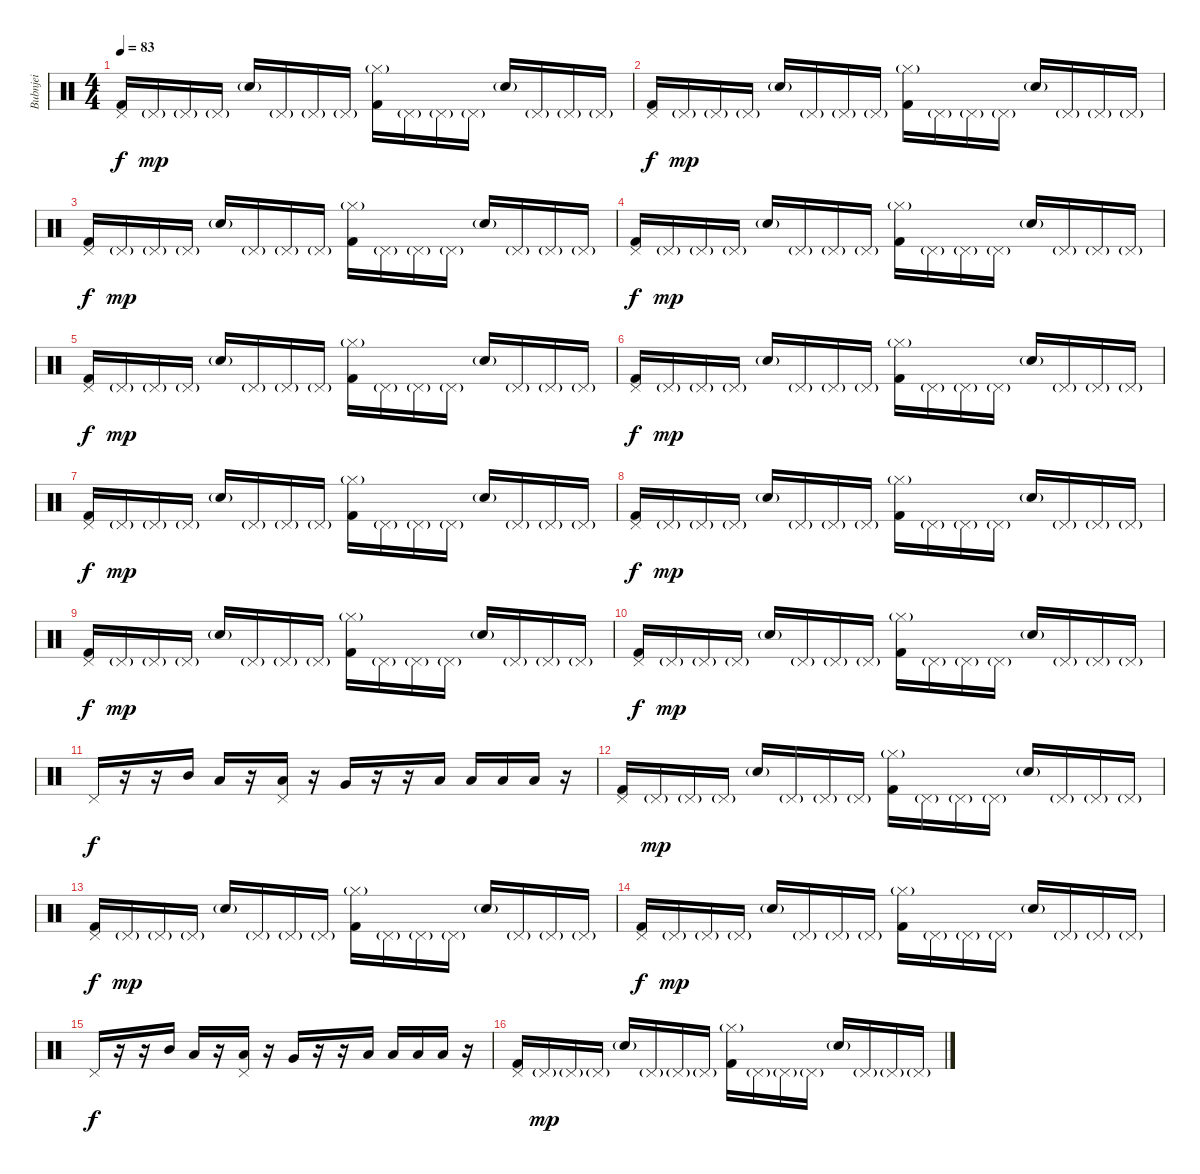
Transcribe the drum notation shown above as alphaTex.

\track ("Bubnjei" "Bubnjei") {instrument percussion}
\staff {score}
\articulation defaults
\ts (4 4)
\tempo 83
\clef neutral
\ks c
("Pedal Hi-Hat (hit)" "Kick (hit) 2").16{dy f} "Pedal Hi-Hat (hit)"{g}.16{dy mp} "Pedal Hi-Hat (hit)"{g}.16 "Pedal Hi-Hat (hit)"{g}.16 "Snare (hit) 2"{g}.16 "Pedal Hi-Hat (hit)"{g}.16 "Pedal Hi-Hat (hit)"{g}.16 "Pedal Hi-Hat (hit)"{g}.16 ("Hi-Hat (closed)"{g} "Kick (hit) 2").16 "Pedal Hi-Hat (hit)"{g}.16 "Pedal Hi-Hat (hit)"{g}.16 "Pedal Hi-Hat (hit)"{g}.16 "Snare (hit) 2"{g}.16 "Pedal Hi-Hat (hit)"{g}.16 "Pedal Hi-Hat (hit)"{g}.16 "Pedal Hi-Hat (hit)"{g}.16 |
("Pedal Hi-Hat (hit)" "Kick (hit) 2").16{dy f} "Pedal Hi-Hat (hit)"{g}.16{dy mp} "Pedal Hi-Hat (hit)"{g}.16 "Pedal Hi-Hat (hit)"{g}.16 "Snare (hit) 2"{g}.16 "Pedal Hi-Hat (hit)"{g}.16 "Pedal Hi-Hat (hit)"{g}.16 "Pedal Hi-Hat (hit)"{g}.16 ("Hi-Hat (closed)"{g} "Kick (hit) 2").16 "Pedal Hi-Hat (hit)"{g}.16 "Pedal Hi-Hat (hit)"{g}.16 "Pedal Hi-Hat (hit)"{g}.16 "Snare (hit) 2"{g}.16 "Pedal Hi-Hat (hit)"{g}.16 "Pedal Hi-Hat (hit)"{g}.16 "Pedal Hi-Hat (hit)"{g}.16 |
("Pedal Hi-Hat (hit)" "Kick (hit) 2").16{dy f} "Pedal Hi-Hat (hit)"{g}.16{dy mp} "Pedal Hi-Hat (hit)"{g}.16 "Pedal Hi-Hat (hit)"{g}.16 "Snare (hit) 2"{g}.16 "Pedal Hi-Hat (hit)"{g}.16 "Pedal Hi-Hat (hit)"{g}.16 "Pedal Hi-Hat (hit)"{g}.16 ("Hi-Hat (closed)"{g} "Kick (hit) 2").16 "Pedal Hi-Hat (hit)"{g}.16 "Pedal Hi-Hat (hit)"{g}.16 "Pedal Hi-Hat (hit)"{g}.16 "Snare (hit) 2"{g}.16 "Pedal Hi-Hat (hit)"{g}.16 "Pedal Hi-Hat (hit)"{g}.16 "Pedal Hi-Hat (hit)"{g}.16 |
("Pedal Hi-Hat (hit)" "Kick (hit) 2").16{dy f} "Pedal Hi-Hat (hit)"{g}.16{dy mp} "Pedal Hi-Hat (hit)"{g}.16 "Pedal Hi-Hat (hit)"{g}.16 "Snare (hit) 2"{g}.16 "Pedal Hi-Hat (hit)"{g}.16 "Pedal Hi-Hat (hit)"{g}.16 "Pedal Hi-Hat (hit)"{g}.16 ("Hi-Hat (closed)"{g} "Kick (hit) 2").16 "Pedal Hi-Hat (hit)"{g}.16 "Pedal Hi-Hat (hit)"{g}.16 "Pedal Hi-Hat (hit)"{g}.16 "Snare (hit) 2"{g}.16 "Pedal Hi-Hat (hit)"{g}.16 "Pedal Hi-Hat (hit)"{g}.16 "Pedal Hi-Hat (hit)"{g}.16 |
("Pedal Hi-Hat (hit)" "Kick (hit) 2").16{dy f} "Pedal Hi-Hat (hit)"{g}.16{dy mp} "Pedal Hi-Hat (hit)"{g}.16 "Pedal Hi-Hat (hit)"{g}.16 "Snare (hit) 2"{g}.16 "Pedal Hi-Hat (hit)"{g}.16 "Pedal Hi-Hat (hit)"{g}.16 "Pedal Hi-Hat (hit)"{g}.16 ("Hi-Hat (closed)"{g} "Kick (hit) 2").16 "Pedal Hi-Hat (hit)"{g}.16 "Pedal Hi-Hat (hit)"{g}.16 "Pedal Hi-Hat (hit)"{g}.16 "Snare (hit) 2"{g}.16 "Pedal Hi-Hat (hit)"{g}.16 "Pedal Hi-Hat (hit)"{g}.16 "Pedal Hi-Hat (hit)"{g}.16 |
("Pedal Hi-Hat (hit)" "Kick (hit) 2").16{dy f} "Pedal Hi-Hat (hit)"{g}.16{dy mp} "Pedal Hi-Hat (hit)"{g}.16 "Pedal Hi-Hat (hit)"{g}.16 "Snare (hit) 2"{g}.16 "Pedal Hi-Hat (hit)"{g}.16 "Pedal Hi-Hat (hit)"{g}.16 "Pedal Hi-Hat (hit)"{g}.16 ("Hi-Hat (closed)"{g} "Kick (hit) 2").16 "Pedal Hi-Hat (hit)"{g}.16 "Pedal Hi-Hat (hit)"{g}.16 "Pedal Hi-Hat (hit)"{g}.16 "Snare (hit) 2"{g}.16 "Pedal Hi-Hat (hit)"{g}.16 "Pedal Hi-Hat (hit)"{g}.16 "Pedal Hi-Hat (hit)"{g}.16 |
("Pedal Hi-Hat (hit)" "Kick (hit) 2").16{dy f} "Pedal Hi-Hat (hit)"{g}.16{dy mp} "Pedal Hi-Hat (hit)"{g}.16 "Pedal Hi-Hat (hit)"{g}.16 "Snare (hit) 2"{g}.16 "Pedal Hi-Hat (hit)"{g}.16 "Pedal Hi-Hat (hit)"{g}.16 "Pedal Hi-Hat (hit)"{g}.16 ("Hi-Hat (closed)"{g} "Kick (hit) 2").16 "Pedal Hi-Hat (hit)"{g}.16 "Pedal Hi-Hat (hit)"{g}.16 "Pedal Hi-Hat (hit)"{g}.16 "Snare (hit) 2"{g}.16 "Pedal Hi-Hat (hit)"{g}.16 "Pedal Hi-Hat (hit)"{g}.16 "Pedal Hi-Hat (hit)"{g}.16 |
("Pedal Hi-Hat (hit)" "Kick (hit) 2").16{dy f} "Pedal Hi-Hat (hit)"{g}.16{dy mp} "Pedal Hi-Hat (hit)"{g}.16 "Pedal Hi-Hat (hit)"{g}.16 "Snare (hit) 2"{g}.16 "Pedal Hi-Hat (hit)"{g}.16 "Pedal Hi-Hat (hit)"{g}.16 "Pedal Hi-Hat (hit)"{g}.16 ("Hi-Hat (closed)"{g} "Kick (hit) 2").16 "Pedal Hi-Hat (hit)"{g}.16 "Pedal Hi-Hat (hit)"{g}.16 "Pedal Hi-Hat (hit)"{g}.16 "Snare (hit) 2"{g}.16 "Pedal Hi-Hat (hit)"{g}.16 "Pedal Hi-Hat (hit)"{g}.16 "Pedal Hi-Hat (hit)"{g}.16 |
("Pedal Hi-Hat (hit)" "Kick (hit) 2").16{dy f} "Pedal Hi-Hat (hit)"{g}.16{dy mp} "Pedal Hi-Hat (hit)"{g}.16 "Pedal Hi-Hat (hit)"{g}.16 "Snare (hit) 2"{g}.16 "Pedal Hi-Hat (hit)"{g}.16 "Pedal Hi-Hat (hit)"{g}.16 "Pedal Hi-Hat (hit)"{g}.16 ("Hi-Hat (closed)"{g} "Kick (hit) 2").16 "Pedal Hi-Hat (hit)"{g}.16 "Pedal Hi-Hat (hit)"{g}.16 "Pedal Hi-Hat (hit)"{g}.16 "Snare (hit) 2"{g}.16 "Pedal Hi-Hat (hit)"{g}.16 "Pedal Hi-Hat (hit)"{g}.16 "Pedal Hi-Hat (hit)"{g}.16 |
("Pedal Hi-Hat (hit)" "Kick (hit) 2").16{dy f} "Pedal Hi-Hat (hit)"{g}.16{dy mp} "Pedal Hi-Hat (hit)"{g}.16 "Pedal Hi-Hat (hit)"{g}.16 "Snare (hit) 2"{g}.16 "Pedal Hi-Hat (hit)"{g}.16 "Pedal Hi-Hat (hit)"{g}.16 "Pedal Hi-Hat (hit)"{g}.16 ("Hi-Hat (closed)"{g} "Kick (hit) 2").16 "Pedal Hi-Hat (hit)"{g}.16 "Pedal Hi-Hat (hit)"{g}.16 "Pedal Hi-Hat (hit)"{g}.16 "Snare (hit) 2"{g}.16 "Pedal Hi-Hat (hit)"{g}.16 "Pedal Hi-Hat (hit)"{g}.16 "Pedal Hi-Hat (hit)"{g}.16 |
"Pedal Hi-Hat (hit)".16{dy f} r.16 r.16 "Mid Tom (hit)".16 "Low Tom (hit)".16 r.16 ("Pedal Hi-Hat (hit)" "Low Tom (hit)").16 r.16 "Very Low Tom (hit)".16 r.16 r.16 "Low Floor Tom (hit)".16 "Low Floor Tom (hit)".16 "Low Floor Tom (hit)".16 "Low Floor Tom (hit)".16 r.16 |
("Pedal Hi-Hat (hit)" "Kick (hit) 2").16 "Pedal Hi-Hat (hit)"{g}.16{dy mp} "Pedal Hi-Hat (hit)"{g}.16 "Pedal Hi-Hat (hit)"{g}.16 "Snare (hit) 2"{g}.16 "Pedal Hi-Hat (hit)"{g}.16 "Pedal Hi-Hat (hit)"{g}.16 "Pedal Hi-Hat (hit)"{g}.16 ("Hi-Hat (closed)"{g} "Kick (hit) 2").16 "Pedal Hi-Hat (hit)"{g}.16 "Pedal Hi-Hat (hit)"{g}.16 "Pedal Hi-Hat (hit)"{g}.16 "Snare (hit) 2"{g}.16 "Pedal Hi-Hat (hit)"{g}.16 "Pedal Hi-Hat (hit)"{g}.16 "Pedal Hi-Hat (hit)"{g}.16 |
("Pedal Hi-Hat (hit)" "Kick (hit) 2").16{dy f} "Pedal Hi-Hat (hit)"{g}.16{dy mp} "Pedal Hi-Hat (hit)"{g}.16 "Pedal Hi-Hat (hit)"{g}.16 "Snare (hit) 2"{g}.16 "Pedal Hi-Hat (hit)"{g}.16 "Pedal Hi-Hat (hit)"{g}.16 "Pedal Hi-Hat (hit)"{g}.16 ("Hi-Hat (closed)"{g} "Kick (hit) 2").16 "Pedal Hi-Hat (hit)"{g}.16 "Pedal Hi-Hat (hit)"{g}.16 "Pedal Hi-Hat (hit)"{g}.16 "Snare (hit) 2"{g}.16 "Pedal Hi-Hat (hit)"{g}.16 "Pedal Hi-Hat (hit)"{g}.16 "Pedal Hi-Hat (hit)"{g}.16 |
("Pedal Hi-Hat (hit)" "Kick (hit) 2").16{dy f} "Pedal Hi-Hat (hit)"{g}.16{dy mp} "Pedal Hi-Hat (hit)"{g}.16 "Pedal Hi-Hat (hit)"{g}.16 "Snare (hit) 2"{g}.16 "Pedal Hi-Hat (hit)"{g}.16 "Pedal Hi-Hat (hit)"{g}.16 "Pedal Hi-Hat (hit)"{g}.16 ("Hi-Hat (closed)"{g} "Kick (hit) 2").16 "Pedal Hi-Hat (hit)"{g}.16 "Pedal Hi-Hat (hit)"{g}.16 "Pedal Hi-Hat (hit)"{g}.16 "Snare (hit) 2"{g}.16 "Pedal Hi-Hat (hit)"{g}.16 "Pedal Hi-Hat (hit)"{g}.16 "Pedal Hi-Hat (hit)"{g}.16 |
"Pedal Hi-Hat (hit)".16{dy f} r.16 r.16 "Mid Tom (hit)".16 "Low Tom (hit)".16 r.16 ("Pedal Hi-Hat (hit)" "Low Tom (hit)").16 r.16 "Very Low Tom (hit)".16 r.16 r.16 "Low Floor Tom (hit)".16 "Low Floor Tom (hit)".16 "Low Floor Tom (hit)".16 "Low Floor Tom (hit)".16 r.16 |
("Pedal Hi-Hat (hit)" "Kick (hit) 2").16 "Pedal Hi-Hat (hit)"{g}.16{dy mp} "Pedal Hi-Hat (hit)"{g}.16 "Pedal Hi-Hat (hit)"{g}.16 "Snare (hit) 2"{g}.16 "Pedal Hi-Hat (hit)"{g}.16 "Pedal Hi-Hat (hit)"{g}.16 "Pedal Hi-Hat (hit)"{g}.16 ("Hi-Hat (closed)"{g} "Kick (hit) 2").16 "Pedal Hi-Hat (hit)"{g}.16 "Pedal Hi-Hat (hit)"{g}.16 "Pedal Hi-Hat (hit)"{g}.16 "Snare (hit) 2"{g}.16 "Pedal Hi-Hat (hit)"{g}.16 "Pedal Hi-Hat (hit)"{g}.16 "Pedal Hi-Hat (hit)"{g}.16
